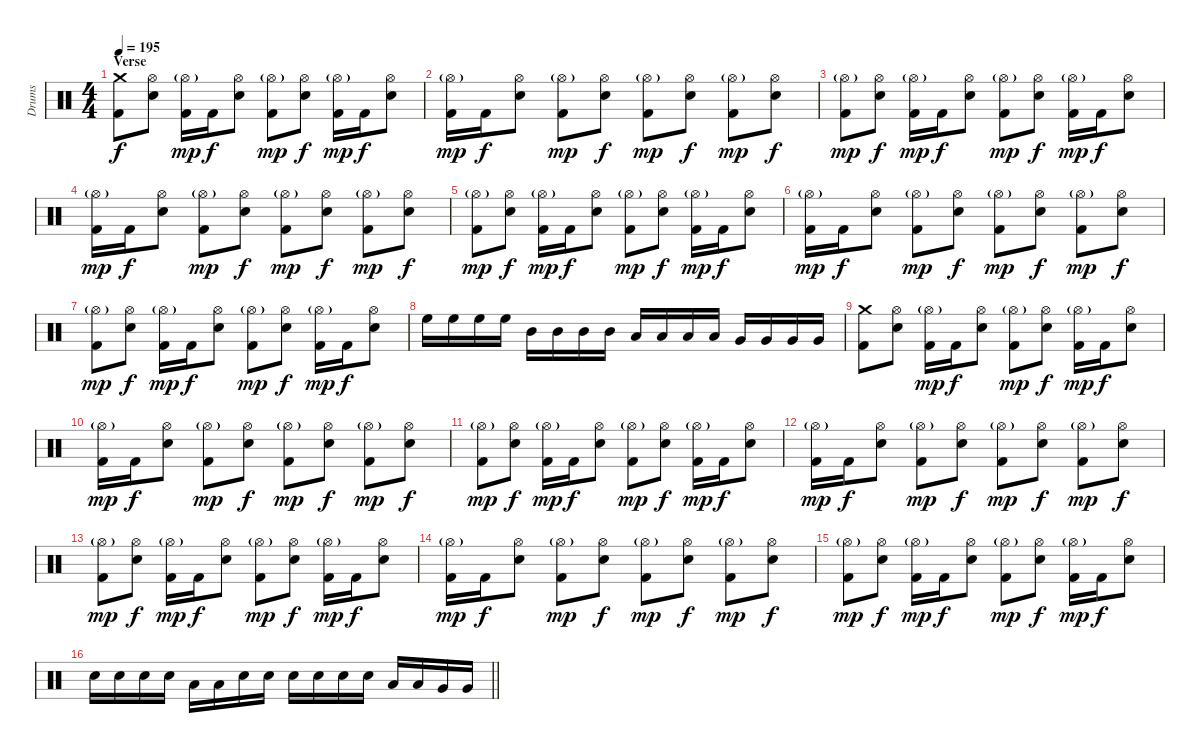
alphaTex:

\track ("Drums" "Drums") {instrument percussion}
\staff {score}
\articulation defaults
\ts (4 4)
\section ("" "Verse")
\tempo 195
\clef neutral
\ks c
("Crash medium (hit)" "Kick (hit) 2").8{dy f} ("Hi-Hat (open)" "Snare (hit) 2").8 ("Hi-Hat (open)"{g} "Kick (hit) 2").16{dy mp} "Kick (hit) 2".16{dy f} ("Hi-Hat (open)" "Snare (hit) 2").8 ("Hi-Hat (open)"{g} "Kick (hit) 2").8{dy mp} ("Hi-Hat (open)" "Snare (hit) 2").8{dy f} ("Hi-Hat (open)"{g} "Kick (hit) 2").16{dy mp} "Kick (hit) 2".16{dy f} ("Hi-Hat (open)" "Snare (hit) 2").8 |
("Hi-Hat (open)"{g} "Kick (hit) 2").16{dy mp} "Kick (hit) 2".16{dy f} ("Hi-Hat (open)" "Snare (hit) 2").8 ("Hi-Hat (open)"{g} "Kick (hit) 2").8{dy mp} ("Hi-Hat (open)" "Snare (hit) 2").8{dy f} ("Hi-Hat (open)"{g} "Kick (hit) 2").8{dy mp} ("Hi-Hat (open)" "Snare (hit) 2").8{dy f} ("Hi-Hat (open)"{g} "Kick (hit) 2").8{dy mp} ("Hi-Hat (open)" "Snare (hit) 2").8{dy f} |
("Hi-Hat (open)"{g} "Kick (hit) 2").8{dy mp} ("Hi-Hat (open)" "Snare (hit) 2").8{dy f} ("Hi-Hat (open)"{g} "Kick (hit) 2").16{dy mp} "Kick (hit) 2".16{dy f} ("Hi-Hat (open)" "Snare (hit) 2").8 ("Hi-Hat (open)"{g} "Kick (hit) 2").8{dy mp} ("Hi-Hat (open)" "Snare (hit) 2").8{dy f} ("Hi-Hat (open)"{g} "Kick (hit) 2").16{dy mp} "Kick (hit) 2".16{dy f} ("Hi-Hat (open)" "Snare (hit) 2").8 |
("Hi-Hat (open)"{g} "Kick (hit) 2").16{dy mp} "Kick (hit) 2".16{dy f} ("Hi-Hat (open)" "Snare (hit) 2").8 ("Hi-Hat (open)"{g} "Kick (hit) 2").8{dy mp} ("Hi-Hat (open)" "Snare (hit) 2").8{dy f} ("Hi-Hat (open)"{g} "Kick (hit) 2").8{dy mp} ("Hi-Hat (open)" "Snare (hit) 2").8{dy f} ("Hi-Hat (open)"{g} "Kick (hit) 2").8{dy mp} ("Hi-Hat (open)" "Snare (hit) 2").8{dy f} |
("Hi-Hat (open)"{g} "Kick (hit) 2").8{dy mp} ("Hi-Hat (open)" "Snare (hit) 2").8{dy f} ("Hi-Hat (open)"{g} "Kick (hit) 2").16{dy mp} "Kick (hit) 2".16{dy f} ("Hi-Hat (open)" "Snare (hit) 2").8 ("Hi-Hat (open)"{g} "Kick (hit) 2").8{dy mp} ("Hi-Hat (open)" "Snare (hit) 2").8{dy f} ("Hi-Hat (open)"{g} "Kick (hit) 2").16{dy mp} "Kick (hit) 2".16{dy f} ("Hi-Hat (open)" "Snare (hit) 2").8 |
("Hi-Hat (open)"{g} "Kick (hit) 2").16{dy mp} "Kick (hit) 2".16{dy f} ("Hi-Hat (open)" "Snare (hit) 2").8 ("Hi-Hat (open)"{g} "Kick (hit) 2").8{dy mp} ("Hi-Hat (open)" "Snare (hit) 2").8{dy f} ("Hi-Hat (open)"{g} "Kick (hit) 2").8{dy mp} ("Hi-Hat (open)" "Snare (hit) 2").8{dy f} ("Hi-Hat (open)"{g} "Kick (hit) 2").8{dy mp} ("Hi-Hat (open)" "Snare (hit) 2").8{dy f} |
("Hi-Hat (open)"{g} "Kick (hit) 2").8{dy mp} ("Hi-Hat (open)" "Snare (hit) 2").8{dy f} ("Hi-Hat (open)"{g} "Kick (hit) 2").16{dy mp} "Kick (hit) 2".16{dy f} ("Hi-Hat (open)" "Snare (hit) 2").8 ("Hi-Hat (open)"{g} "Kick (hit) 2").8{dy mp} ("Hi-Hat (open)" "Snare (hit) 2").8{dy f} ("Hi-Hat (open)"{g} "Kick (hit) 2").16{dy mp} "Kick (hit) 2".16{dy f} ("Hi-Hat (open)" "Snare (hit) 2").8 |
"High Floor Tom (hit)".16 "High Floor Tom (hit)".16 "High Floor Tom (hit)".16 "High Floor Tom (hit)".16 "Mid Tom (hit)".16 "Mid Tom (hit)".16 "Mid Tom (hit)".16 "Mid Tom (hit)".16 "Low Tom (hit)".16 "Low Tom (hit)".16 "Low Tom (hit)".16 "Low Tom (hit)".16 "Very Low Tom (hit)".16 "Very Low Tom (hit)".16 "Very Low Tom (hit)".16 "Very Low Tom (hit)".16 |
("Crash medium (hit)" "Kick (hit) 2").8 ("Hi-Hat (open)" "Snare (hit) 2").8 ("Hi-Hat (open)"{g} "Kick (hit) 2").16{dy mp} "Kick (hit) 2".16{dy f} ("Hi-Hat (open)" "Snare (hit) 2").8 ("Hi-Hat (open)"{g} "Kick (hit) 2").8{dy mp} ("Hi-Hat (open)" "Snare (hit) 2").8{dy f} ("Hi-Hat (open)"{g} "Kick (hit) 2").16{dy mp} "Kick (hit) 2".16{dy f} ("Hi-Hat (open)" "Snare (hit) 2").8 |
("Hi-Hat (open)"{g} "Kick (hit) 2").16{dy mp} "Kick (hit) 2".16{dy f} ("Hi-Hat (open)" "Snare (hit) 2").8 ("Hi-Hat (open)"{g} "Kick (hit) 2").8{dy mp} ("Hi-Hat (open)" "Snare (hit) 2").8{dy f} ("Hi-Hat (open)"{g} "Kick (hit) 2").8{dy mp} ("Hi-Hat (open)" "Snare (hit) 2").8{dy f} ("Hi-Hat (open)"{g} "Kick (hit) 2").8{dy mp} ("Hi-Hat (open)" "Snare (hit) 2").8{dy f} |
("Hi-Hat (open)"{g} "Kick (hit) 2").8{dy mp} ("Hi-Hat (open)" "Snare (hit) 2").8{dy f} ("Hi-Hat (open)"{g} "Kick (hit) 2").16{dy mp} "Kick (hit) 2".16{dy f} ("Hi-Hat (open)" "Snare (hit) 2").8 ("Hi-Hat (open)"{g} "Kick (hit) 2").8{dy mp} ("Hi-Hat (open)" "Snare (hit) 2").8{dy f} ("Hi-Hat (open)"{g} "Kick (hit) 2").16{dy mp} "Kick (hit) 2".16{dy f} ("Hi-Hat (open)" "Snare (hit) 2").8 |
("Hi-Hat (open)"{g} "Kick (hit) 2").16{dy mp} "Kick (hit) 2".16{dy f} ("Hi-Hat (open)" "Snare (hit) 2").8 ("Hi-Hat (open)"{g} "Kick (hit) 2").8{dy mp} ("Hi-Hat (open)" "Snare (hit) 2").8{dy f} ("Hi-Hat (open)"{g} "Kick (hit) 2").8{dy mp} ("Hi-Hat (open)" "Snare (hit) 2").8{dy f} ("Hi-Hat (open)"{g} "Kick (hit) 2").8{dy mp} ("Hi-Hat (open)" "Snare (hit) 2").8{dy f} |
("Hi-Hat (open)"{g} "Kick (hit) 2").8{dy mp} ("Hi-Hat (open)" "Snare (hit) 2").8{dy f} ("Hi-Hat (open)"{g} "Kick (hit) 2").16{dy mp} "Kick (hit) 2".16{dy f} ("Hi-Hat (open)" "Snare (hit) 2").8 ("Hi-Hat (open)"{g} "Kick (hit) 2").8{dy mp} ("Hi-Hat (open)" "Snare (hit) 2").8{dy f} ("Hi-Hat (open)"{g} "Kick (hit) 2").16{dy mp} "Kick (hit) 2".16{dy f} ("Hi-Hat (open)" "Snare (hit) 2").8 |
("Hi-Hat (open)"{g} "Kick (hit) 2").16{dy mp} "Kick (hit) 2".16{dy f} ("Hi-Hat (open)" "Snare (hit) 2").8 ("Hi-Hat (open)"{g} "Kick (hit) 2").8{dy mp} ("Hi-Hat (open)" "Snare (hit) 2").8{dy f} ("Hi-Hat (open)"{g} "Kick (hit) 2").8{dy mp} ("Hi-Hat (open)" "Snare (hit) 2").8{dy f} ("Hi-Hat (open)"{g} "Kick (hit) 2").8{dy mp} ("Hi-Hat (open)" "Snare (hit) 2").8{dy f} |
("Hi-Hat (open)"{g} "Kick (hit) 2").8{dy mp} ("Hi-Hat (open)" "Snare (hit) 2").8{dy f} ("Hi-Hat (open)"{g} "Kick (hit) 2").16{dy mp} "Kick (hit) 2".16{dy f} ("Hi-Hat (open)" "Snare (hit) 2").8 ("Hi-Hat (open)"{g} "Kick (hit) 2").8{dy mp} ("Hi-Hat (open)" "Snare (hit) 2").8{dy f} ("Hi-Hat (open)"{g} "Kick (hit) 2").16{dy mp} "Kick (hit) 2".16{dy f} ("Hi-Hat (open)" "Snare (hit) 2").8 |
\barLineRight lightlight "Snare (hit) 2".16 "Snare (hit) 2".16 "Snare (hit) 2".16 "Snare (hit) 2".16 "Low Tom (hit)".16 "Low Tom (hit)".16 "Snare (hit) 2".16 "Snare (hit) 2".16 "Snare (hit) 2".16 "Snare (hit) 2".16 "Snare (hit) 2".16 "Snare (hit) 2".16 "Low Tom (hit)".16 "Low Tom (hit)".16 "Very Low Tom (hit)".16 "Very Low Tom (hit)".16
